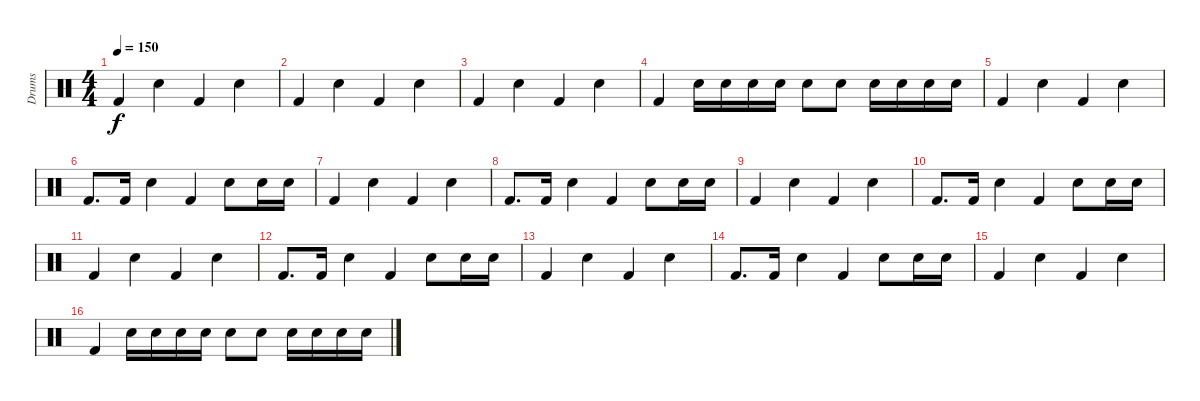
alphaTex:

\track ("Drums" "Drums") {instrument percussion}
\staff {score}
\articulation defaults
\ts (4 4)
\tempo 150
\clef neutral
\ks c "Kick (hit) 2".4{dy f} "Electric Snare (hit)".4 "Kick (hit) 2".4 "Electric Snare (hit)".4
|
"Kick (hit) 2".4 "Electric Snare (hit)".4 "Kick (hit) 2".4 "Electric Snare (hit)".4 |
"Kick (hit) 2".4 "Electric Snare (hit)".4 "Kick (hit) 2".4 "Electric Snare (hit)".4 |
"Kick (hit) 2".4 "Electric Snare (hit)".16 "Electric Snare (hit)".16 "Electric Snare (hit)".16 "Electric Snare (hit)".16 "Electric Snare (hit)".8 "Electric Snare (hit)".8 "Electric Snare (hit)".16 "Electric Snare (hit)".16 "Electric Snare (hit)".16 "Electric Snare (hit)".16 |
"Kick (hit) 2".4 "Electric Snare (hit)".4 "Kick (hit) 2".4 "Electric Snare (hit)".4 |
"Kick (hit) 2".8{d} "Kick (hit) 2".16 "Electric Snare (hit)".4 "Kick (hit) 2".4 "Electric Snare (hit)".8 "Electric Snare (hit)".16 "Electric Snare (hit)".16 |
"Kick (hit) 2".4 "Electric Snare (hit)".4 "Kick (hit) 2".4 "Electric Snare (hit)".4 |
"Kick (hit) 2".8{d} "Kick (hit) 2".16 "Electric Snare (hit)".4 "Kick (hit) 2".4 "Electric Snare (hit)".8 "Electric Snare (hit)".16 "Electric Snare (hit)".16 |
"Kick (hit) 2".4 "Electric Snare (hit)".4 "Kick (hit) 2".4 "Electric Snare (hit)".4 |
"Kick (hit) 2".8{d} "Kick (hit) 2".16 "Electric Snare (hit)".4 "Kick (hit) 2".4 "Electric Snare (hit)".8 "Electric Snare (hit)".16 "Electric Snare (hit)".16 |
"Kick (hit) 2".4 "Electric Snare (hit)".4 "Kick (hit) 2".4 "Electric Snare (hit)".4 |
"Kick (hit) 2".8{d} "Kick (hit) 2".16 "Electric Snare (hit)".4 "Kick (hit) 2".4 "Electric Snare (hit)".8 "Electric Snare (hit)".16 "Electric Snare (hit)".16 |
"Kick (hit) 2".4 "Electric Snare (hit)".4 "Kick (hit) 2".4 "Electric Snare (hit)".4 |
"Kick (hit) 2".8{d} "Kick (hit) 2".16 "Electric Snare (hit)".4 "Kick (hit) 2".4 "Electric Snare (hit)".8 "Electric Snare (hit)".16 "Electric Snare (hit)".16 |
"Kick (hit) 2".4 "Electric Snare (hit)".4 "Kick (hit) 2".4 "Electric Snare (hit)".4 |
"Kick (hit) 2".4 "Electric Snare (hit)".16 "Electric Snare (hit)".16 "Electric Snare (hit)".16 "Electric Snare (hit)".16 "Electric Snare (hit)".8 "Electric Snare (hit)".8 "Electric Snare (hit)".16 "Electric Snare (hit)".16 "Electric Snare (hit)".16 "Electric Snare (hit)".16
